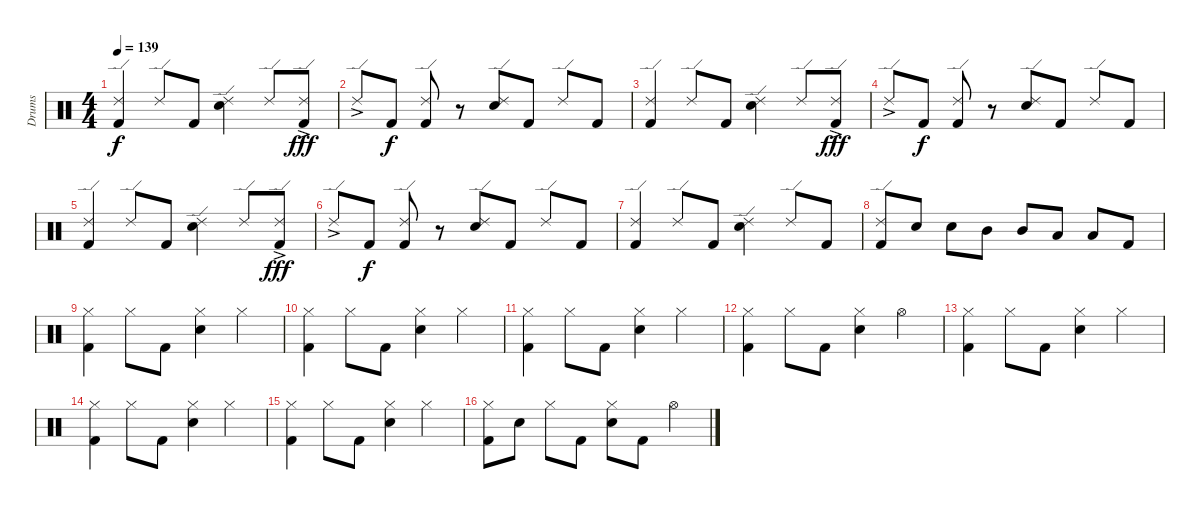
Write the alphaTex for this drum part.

\track ("Drums" "Drums") {instrument percussion}
\staff {score}
\articulation defaults
\ts (4 4)
\tempo 139
\clef neutral
\ks c
("Ride (edge) 2" "Kick (hit) 2").4{dy f} "Ride (edge) 2".8 "Kick (hit) 2".8 ("Ride (edge) 2" "Electric Snare (hit)").4 "Ride (edge) 2".8 ("Ride (edge) 2"{ac} "Kick (hit) 2").8{dy fff} |
"Ride (edge) 2"{ac}.8 "Kick (hit) 2".8{dy f} ("Ride (edge) 2" "Kick (hit) 2").8 r.8 ("Ride (edge) 2" "Electric Snare (hit)").8 "Kick (hit) 2".8 "Ride (edge) 2".8 "Kick (hit) 2".8 |
("Ride (edge) 2" "Kick (hit) 2").4 "Ride (edge) 2".8 "Kick (hit) 2".8 ("Ride (edge) 2" "Electric Snare (hit)").4 "Ride (edge) 2".8 ("Ride (edge) 2"{ac} "Kick (hit) 2").8{dy fff} |
"Ride (edge) 2"{ac}.8 "Kick (hit) 2".8{dy f} ("Ride (edge) 2" "Kick (hit) 2").8 r.8 ("Ride (edge) 2" "Electric Snare (hit)").8 "Kick (hit) 2".8 "Ride (edge) 2".8 "Kick (hit) 2".8 |
("Ride (edge) 2" "Kick (hit) 2").4 "Ride (edge) 2".8 "Kick (hit) 2".8 ("Ride (edge) 2" "Electric Snare (hit)").4 "Ride (edge) 2".8 ("Ride (edge) 2"{ac} "Kick (hit) 2").8{dy fff} |
"Ride (edge) 2"{ac}.8 "Kick (hit) 2".8{dy f} ("Ride (edge) 2" "Kick (hit) 2").8 r.8 ("Ride (edge) 2" "Electric Snare (hit)").8 "Kick (hit) 2".8 "Ride (edge) 2".8 "Kick (hit) 2".8 |
("Ride (edge) 2" "Kick (hit) 2").4 "Ride (edge) 2".8 "Kick (hit) 2".8 ("Ride (edge) 2" "Electric Snare (hit)").4 "Ride (edge) 2".8 "Kick (hit) 2".8 |
("Ride (edge) 2" "Kick (hit) 2").8 "Electric Snare (hit)".8 "Electric Snare (hit)".8 "Mid Tom (hit)".8 "Mid Tom (hit)".8 "Low Floor Tom (hit)".8 "Low Floor Tom (hit)".8 "Kick (hit) 2".8 |
("Hi-Hat (closed)" "Kick (hit) 2").4 "Hi-Hat (closed)".8 "Kick (hit) 2".8 ("Hi-Hat (closed)" "Electric Snare (hit)").4 "Hi-Hat (closed)".4 |
("Hi-Hat (closed)" "Kick (hit) 2").4 "Hi-Hat (closed)".8 "Kick (hit) 2".8 ("Hi-Hat (closed)" "Electric Snare (hit)").4 "Hi-Hat (closed)".4 |
("Hi-Hat (closed)" "Kick (hit) 2").4 "Hi-Hat (closed)".8 "Kick (hit) 2".8 ("Hi-Hat (closed)" "Electric Snare (hit)").4 "Hi-Hat (closed)".4 |
("Hi-Hat (closed)" "Kick (hit) 2").4 "Hi-Hat (closed)".8 "Kick (hit) 2".8 ("Hi-Hat (closed)" "Electric Snare (hit)").4 "Hi-Hat (open)".4 |
("Hi-Hat (closed)" "Kick (hit) 2").4 "Hi-Hat (closed)".8 "Kick (hit) 2".8 ("Hi-Hat (closed)" "Electric Snare (hit)").4 "Hi-Hat (closed)".4 |
("Hi-Hat (closed)" "Kick (hit) 2").4 "Hi-Hat (closed)".8 "Kick (hit) 2".8 ("Hi-Hat (closed)" "Electric Snare (hit)").4 "Hi-Hat (closed)".4 |
("Hi-Hat (closed)" "Kick (hit) 2").4 "Hi-Hat (closed)".8 "Kick (hit) 2".8 ("Hi-Hat (closed)" "Electric Snare (hit)").4 "Hi-Hat (closed)".4 |
("Hi-Hat (closed)" "Kick (hit) 2").8 "Electric Snare (hit)".8 "Hi-Hat (closed)".8 "Kick (hit) 2".8 ("Hi-Hat (closed)" "Electric Snare (hit)").8 "Kick (hit) 2".8 "Hi-Hat (open)".4
